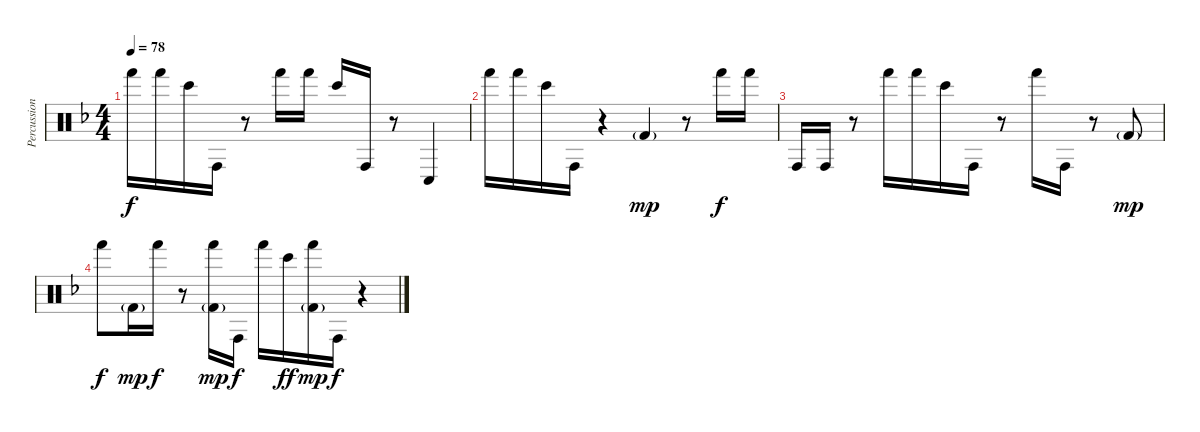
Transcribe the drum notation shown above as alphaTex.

\track ("Percussion" "Percussion") {instrument percussion}
\staff {score}
\articulation defaults
\ts (4 4)
\tempo 78
\clef neutral
\ks dminor "Hand (hit)".16{dy f} "Hand (hit)".16 "Bongo High (hit)".16 "Conga high (hit)".16
r.8 "Hand (hit)".16 "Hand (hit)".16 "Bongo High (hit)".16 "Conga high (hit)".16 r.8 "Conga low (hit)".4 |
"Hand (hit)".16 "Hand (hit)".16 "Bongo High (hit)".16 "Conga high (hit)".16 r.4 "Kick (hit) 2"{g}.4{dy mp} r.8 "Hand (hit)".16{dy f} "Hand (hit)".16 |
"Conga high (hit)".16 "Conga high (hit)".16 r.8 "Hand (hit)".16 "Hand (hit)".16 "Bongo High (hit)".16 "Conga high (hit)".16 r.8 "Hand (hit)".16 "Conga high (hit)".16 r.8 "Kick (hit) 2"{g}.8{dy mp} |
"Hand (hit)".8{dy f} "Kick (hit) 2"{g}.16{dy mp} "Hand (hit)".16{dy f} r.8 ("Hand (hit)" "Kick (hit) 2"{g}).16{dy mp} "Conga high (hit)".16{dy f} "Hand (hit)".16 "Bongo High (hit)".16{dy ff} ("Hand (hit)" "Kick (hit) 2"{g}).16{dy mp} "Conga high (hit)".16{dy f} r.4
